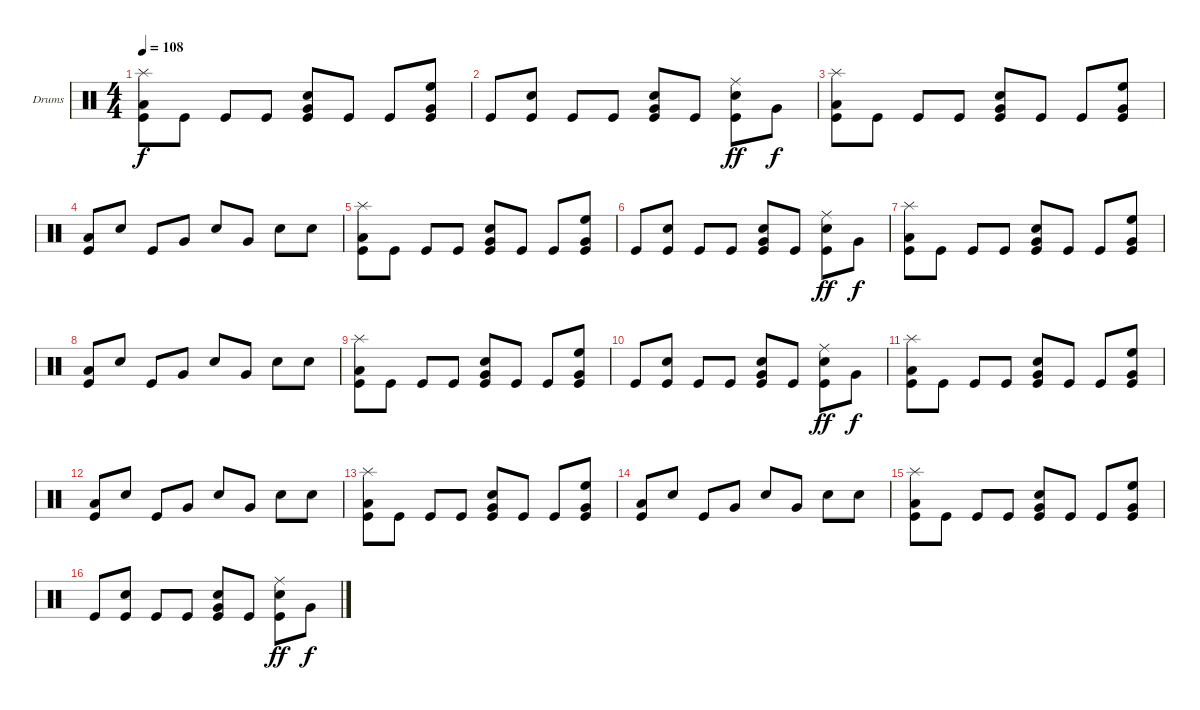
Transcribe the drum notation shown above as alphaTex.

\bracketExtendMode groupsimilarinstruments
\firstSystemTrackNameOrientation horizontal
\otherSystemsTrackNameOrientation horizontal
\track ("Drumkit" "Drums") {instrument percussion}
\staff {score}
\articulation defaults
\ts (4 4)
\tempo 108
\clef neutral
\ks c
("Low Tom (hit)" "Kick (hit)" "Splash (hit)").8{dy f} "Kick (hit)".8 "Kick (hit)".8 "Kick (hit)".8 ("Snare (hit) 2" "Very Low Tom (hit)" "Kick (hit)").8 "Kick (hit)".8 "Kick (hit)".8 ("Kick (hit)" "Very Low Tom (hit)" "High Floor Tom (hit)").8 |
"Kick (hit)".8 ("Kick (hit)" "Snare (hit) 2").8 "Kick (hit)".8 "Kick (hit)".8 ("Snare (hit) 2" "Very Low Tom (hit)" "Kick (hit)").8 "Kick (hit)".8 ("Snare (hit) 2" "Kick (hit)" "Ride (middle)").8{dy ff} "Very Low Tom (hit)".8{dy f} |
("Low Tom (hit)" "Kick (hit)" "Splash (hit)").8 "Kick (hit)".8 "Kick (hit)".8 "Kick (hit)".8 ("Snare (hit) 2" "Very Low Tom (hit)" "Kick (hit)").8 "Kick (hit)".8 "Kick (hit)".8 ("Kick (hit)" "Very Low Tom (hit)" "High Floor Tom (hit)").8 |
("Kick (hit)" "Low Tom (hit)").8 "Snare (hit) 2".8 "Kick (hit)".8 "Very Low Tom (hit)".8 "Snare (hit) 2".8 "Very Low Tom (hit)".8 "Snare (hit) 2".8 "Snare (hit) 2".8 |
("Low Tom (hit)" "Kick (hit)" "Splash (hit)").8 "Kick (hit)".8 "Kick (hit)".8 "Kick (hit)".8 ("Snare (hit) 2" "Very Low Tom (hit)" "Kick (hit)").8 "Kick (hit)".8 "Kick (hit)".8 ("Kick (hit)" "Very Low Tom (hit)" "High Floor Tom (hit)").8 |
"Kick (hit)".8 ("Kick (hit)" "Snare (hit) 2").8 "Kick (hit)".8 "Kick (hit)".8 ("Snare (hit) 2" "Very Low Tom (hit)" "Kick (hit)").8 "Kick (hit)".8 ("Snare (hit) 2" "Kick (hit)" "Ride (middle)").8{dy ff} "Very Low Tom (hit)".8{dy f} |
("Low Tom (hit)" "Kick (hit)" "Splash (hit)").8 "Kick (hit)".8 "Kick (hit)".8 "Kick (hit)".8 ("Snare (hit) 2" "Very Low Tom (hit)" "Kick (hit)").8 "Kick (hit)".8 "Kick (hit)".8 ("Kick (hit)" "Very Low Tom (hit)" "High Floor Tom (hit)").8 |
("Kick (hit)" "Low Tom (hit)").8 "Snare (hit) 2".8 "Kick (hit)".8 "Very Low Tom (hit)".8 "Snare (hit) 2".8 "Very Low Tom (hit)".8 "Snare (hit) 2".8 "Snare (hit) 2".8 |
("Low Tom (hit)" "Kick (hit)" "Splash (hit)").8 "Kick (hit)".8 "Kick (hit)".8 "Kick (hit)".8 ("Snare (hit) 2" "Very Low Tom (hit)" "Kick (hit)").8 "Kick (hit)".8 "Kick (hit)".8 ("Kick (hit)" "Very Low Tom (hit)" "High Floor Tom (hit)").8 |
"Kick (hit)".8 ("Kick (hit)" "Snare (hit) 2").8 "Kick (hit)".8 "Kick (hit)".8 ("Snare (hit) 2" "Very Low Tom (hit)" "Kick (hit)").8 "Kick (hit)".8 ("Snare (hit) 2" "Kick (hit)" "Ride (middle)").8{dy ff} "Very Low Tom (hit)".8{dy f} |
("Low Tom (hit)" "Kick (hit)" "Splash (hit)").8 "Kick (hit)".8 "Kick (hit)".8 "Kick (hit)".8 ("Snare (hit) 2" "Very Low Tom (hit)" "Kick (hit)").8 "Kick (hit)".8 "Kick (hit)".8 ("Kick (hit)" "Very Low Tom (hit)" "High Floor Tom (hit)").8 |
("Kick (hit)" "Low Tom (hit)").8 "Snare (hit) 2".8 "Kick (hit)".8 "Very Low Tom (hit)".8 "Snare (hit) 2".8 "Very Low Tom (hit)".8 "Snare (hit) 2".8 "Snare (hit) 2".8 |
("Low Tom (hit)" "Kick (hit)" "Splash (hit)").8 "Kick (hit)".8 "Kick (hit)".8 "Kick (hit)".8 ("Snare (hit) 2" "Very Low Tom (hit)" "Kick (hit)").8 "Kick (hit)".8 "Kick (hit)".8 ("Kick (hit)" "Very Low Tom (hit)" "High Floor Tom (hit)").8 |
("Kick (hit)" "Low Tom (hit)").8 "Snare (hit) 2".8 "Kick (hit)".8 "Very Low Tom (hit)".8 "Snare (hit) 2".8 "Very Low Tom (hit)".8 "Snare (hit) 2".8 "Snare (hit) 2".8 |
("Low Tom (hit)" "Kick (hit)" "Splash (hit)").8 "Kick (hit)".8 "Kick (hit)".8 "Kick (hit)".8 ("Snare (hit) 2" "Very Low Tom (hit)" "Kick (hit)").8 "Kick (hit)".8 "Kick (hit)".8 ("Kick (hit)" "Very Low Tom (hit)" "High Floor Tom (hit)").8 |
"Kick (hit)".8 ("Kick (hit)" "Snare (hit) 2").8 "Kick (hit)".8 "Kick (hit)".8 ("Snare (hit) 2" "Very Low Tom (hit)" "Kick (hit)").8 "Kick (hit)".8 ("Snare (hit) 2" "Kick (hit)" "Ride (middle)").8{dy ff} "Very Low Tom (hit)".8{dy f}
